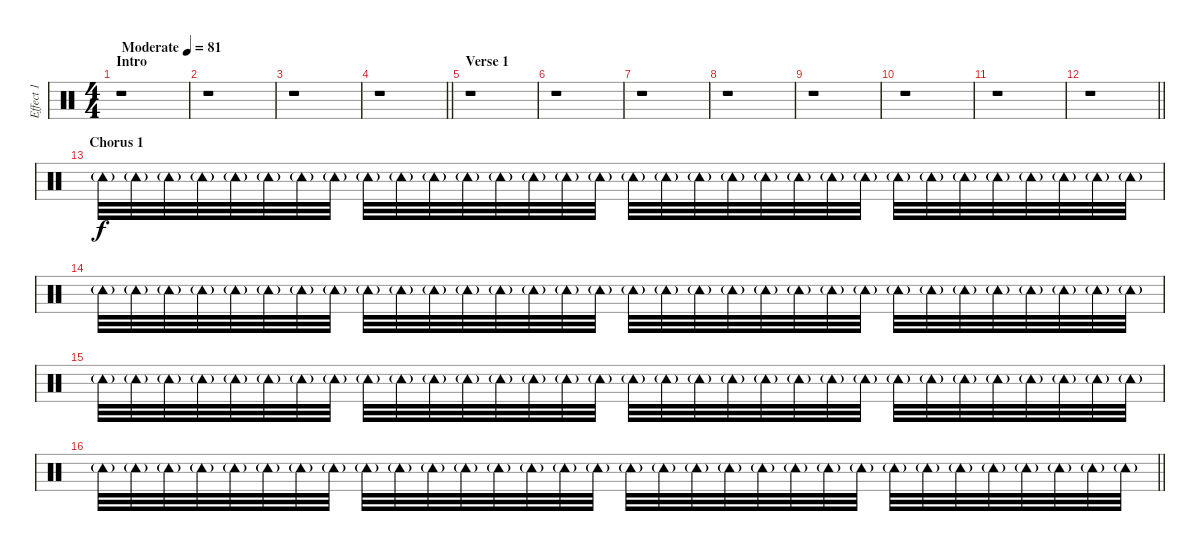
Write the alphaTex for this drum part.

\track ("Effect 1" "Effect 1") {instrument percussion}
\staff {score}
\articulation defaults
\ts (4 4)
\section ("" "Intro")
\tempo (81 "Moderate")
\clef neutral
\ks c
r.1{dy f} |
r.1 |
r.1 |
\barLineRight lightlight
r.1 |
\section ("" "Verse 1")
r.1 |
r.1 |
r.1 |
r.1 |
r.1 |
r.1 |
r.1 |
\barLineRight lightlight
r.1 |
\section ("" "Chorus 1")
"Tambourine (hit)"{g}.32 "Tambourine (hit)"{g}.32 "Tambourine (hit)"{g}.32 "Tambourine (hit)"{g}.32 "Tambourine (hit)"{g}.32 "Tambourine (hit)"{g}.32 "Tambourine (hit)"{g}.32 "Tambourine (hit)"{g}.32 "Tambourine (hit)"{g}.32 "Tambourine (hit)"{g}.32 "Tambourine (hit)"{g}.32 "Tambourine (hit)"{g}.32 "Tambourine (hit)"{g}.32 "Tambourine (hit)"{g}.32 "Tambourine (hit)"{g}.32 "Tambourine (hit)"{g}.32 "Tambourine (hit)"{g}.32 "Tambourine (hit)"{g}.32 "Tambourine (hit)"{g}.32 "Tambourine (hit)"{g}.32 "Tambourine (hit)"{g}.32 "Tambourine (hit)"{g}.32 "Tambourine (hit)"{g}.32 "Tambourine (hit)"{g}.32 "Tambourine (hit)"{g}.32 "Tambourine (hit)"{g}.32 "Tambourine (hit)"{g}.32 "Tambourine (hit)"{g}.32 "Tambourine (hit)"{g}.32 "Tambourine (hit)"{g}.32 "Tambourine (hit)"{g}.32 "Tambourine (hit)"{g}.32 |
"Tambourine (hit)"{g}.32 "Tambourine (hit)"{g}.32 "Tambourine (hit)"{g}.32 "Tambourine (hit)"{g}.32 "Tambourine (hit)"{g}.32 "Tambourine (hit)"{g}.32 "Tambourine (hit)"{g}.32 "Tambourine (hit)"{g}.32 "Tambourine (hit)"{g}.32 "Tambourine (hit)"{g}.32 "Tambourine (hit)"{g}.32 "Tambourine (hit)"{g}.32 "Tambourine (hit)"{g}.32 "Tambourine (hit)"{g}.32 "Tambourine (hit)"{g}.32 "Tambourine (hit)"{g}.32 "Tambourine (hit)"{g}.32 "Tambourine (hit)"{g}.32 "Tambourine (hit)"{g}.32 "Tambourine (hit)"{g}.32 "Tambourine (hit)"{g}.32 "Tambourine (hit)"{g}.32 "Tambourine (hit)"{g}.32 "Tambourine (hit)"{g}.32 "Tambourine (hit)"{g}.32 "Tambourine (hit)"{g}.32 "Tambourine (hit)"{g}.32 "Tambourine (hit)"{g}.32 "Tambourine (hit)"{g}.32 "Tambourine (hit)"{g}.32 "Tambourine (hit)"{g}.32 "Tambourine (hit)"{g}.32 |
"Tambourine (hit)"{g}.32 "Tambourine (hit)"{g}.32 "Tambourine (hit)"{g}.32 "Tambourine (hit)"{g}.32 "Tambourine (hit)"{g}.32 "Tambourine (hit)"{g}.32 "Tambourine (hit)"{g}.32 "Tambourine (hit)"{g}.32 "Tambourine (hit)"{g}.32 "Tambourine (hit)"{g}.32 "Tambourine (hit)"{g}.32 "Tambourine (hit)"{g}.32 "Tambourine (hit)"{g}.32 "Tambourine (hit)"{g}.32 "Tambourine (hit)"{g}.32 "Tambourine (hit)"{g}.32 "Tambourine (hit)"{g}.32 "Tambourine (hit)"{g}.32 "Tambourine (hit)"{g}.32 "Tambourine (hit)"{g}.32 "Tambourine (hit)"{g}.32 "Tambourine (hit)"{g}.32 "Tambourine (hit)"{g}.32 "Tambourine (hit)"{g}.32 "Tambourine (hit)"{g}.32 "Tambourine (hit)"{g}.32 "Tambourine (hit)"{g}.32 "Tambourine (hit)"{g}.32 "Tambourine (hit)"{g}.32 "Tambourine (hit)"{g}.32 "Tambourine (hit)"{g}.32 "Tambourine (hit)"{g}.32 |
\barLineRight lightlight "Tambourine (hit)"{g}.32 "Tambourine (hit)"{g}.32 "Tambourine (hit)"{g}.32 "Tambourine (hit)"{g}.32 "Tambourine (hit)"{g}.32 "Tambourine (hit)"{g}.32 "Tambourine (hit)"{g}.32 "Tambourine (hit)"{g}.32 "Tambourine (hit)"{g}.32 "Tambourine (hit)"{g}.32 "Tambourine (hit)"{g}.32 "Tambourine (hit)"{g}.32 "Tambourine (hit)"{g}.32 "Tambourine (hit)"{g}.32 "Tambourine (hit)"{g}.32 "Tambourine (hit)"{g}.32 "Tambourine (hit)"{g}.32 "Tambourine (hit)"{g}.32 "Tambourine (hit)"{g}.32 "Tambourine (hit)"{g}.32 "Tambourine (hit)"{g}.32 "Tambourine (hit)"{g}.32 "Tambourine (hit)"{g}.32 "Tambourine (hit)"{g}.32 "Tambourine (hit)"{g}.32 "Tambourine (hit)"{g}.32 "Tambourine (hit)"{g}.32 "Tambourine (hit)"{g}.32 "Tambourine (hit)"{g}.32 "Tambourine (hit)"{g}.32 "Tambourine (hit)"{g}.32 "Tambourine (hit)"{g}.32
